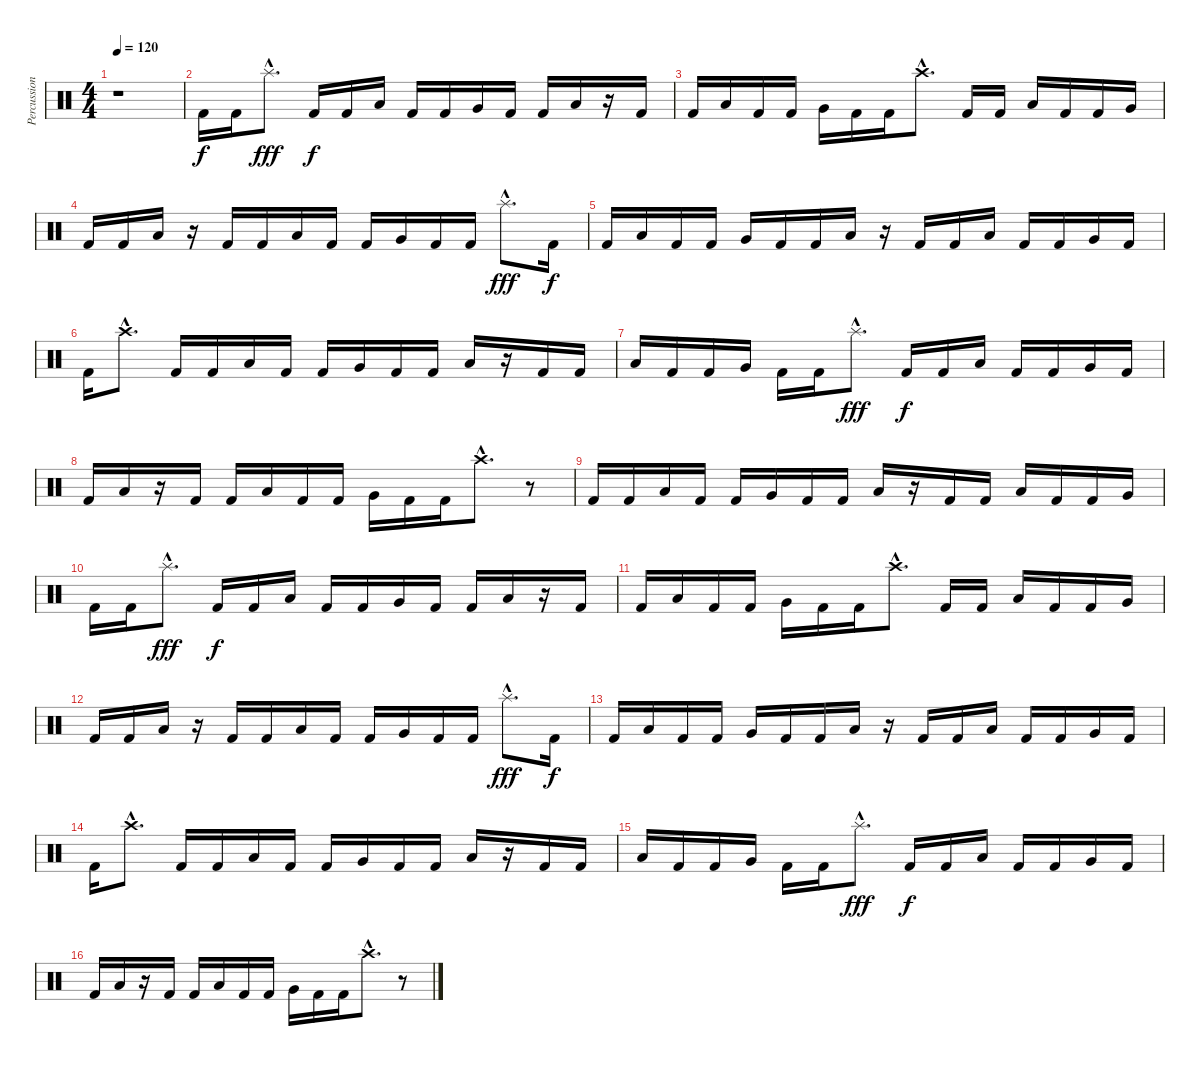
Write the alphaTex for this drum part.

\track ("Percussion" "Percussion") {instrument percussion}
\staff {score}
\articulation defaults
\ts (4 4)
\tempo 120
\clef neutral
\ks c
r.1{dy f} |
"Kick (hit) 2".16 "Kick (hit) 2".16 "Splash (hit)"{hac}.8{d dy fff} "Kick (hit) 2".16{dy f} "Kick (hit) 2".16 "Low Tom (hit)".16 "Kick (hit) 2".16 "Kick (hit) 2".16 "Very Low Tom (hit)".16 "Kick (hit) 2".16 "Kick (hit) 2".16 "Low Floor Tom (hit)".16 r.16 "Kick (hit) 2".16 |
"Kick (hit) 2".16 "Low Tom (hit)".16 "Kick (hit) 2".16 "Kick (hit) 2".16 "Very Low Tom (hit)".16 "Kick (hit) 2".16 "Kick (hit) 2".16 "Crash high (hit)"{hac}.8{d} "Kick (hit) 2".16 "Kick (hit) 2".16 "Low Tom (hit)".16 "Kick (hit) 2".16 "Kick (hit) 2".16 "Very Low Tom (hit)".16 |
"Kick (hit) 2".16 "Kick (hit) 2".16 "Low Floor Tom (hit)".16 r.16 "Kick (hit) 2".16 "Kick (hit) 2".16 "Low Tom (hit)".16 "Kick (hit) 2".16 "Kick (hit) 2".16 "Very Low Tom (hit)".16 "Kick (hit) 2".16 "Kick (hit) 2".16 "Splash (hit)"{hac}.8{d dy fff} "Kick (hit) 2".16{dy f} |
"Kick (hit) 2".16 "Low Tom (hit)".16 "Kick (hit) 2".16 "Kick (hit) 2".16 "Very Low Tom (hit)".16 "Kick (hit) 2".16 "Kick (hit) 2".16 "Low Floor Tom (hit)".16 r.16 "Kick (hit) 2".16 "Kick (hit) 2".16 "Low Tom (hit)".16 "Kick (hit) 2".16 "Kick (hit) 2".16 "Very Low Tom (hit)".16 "Kick (hit) 2".16 |
"Kick (hit) 2".16 "Crash high (hit)"{hac}.8{d} "Kick (hit) 2".16 "Kick (hit) 2".16 "Low Tom (hit)".16 "Kick (hit) 2".16 "Kick (hit) 2".16 "Very Low Tom (hit)".16 "Kick (hit) 2".16 "Kick (hit) 2".16 "Low Floor Tom (hit)".16 r.16 "Kick (hit) 2".16 "Kick (hit) 2".16 |
"Low Tom (hit)".16 "Kick (hit) 2".16 "Kick (hit) 2".16 "Very Low Tom (hit)".16 "Kick (hit) 2".16 "Kick (hit) 2".16 "Splash (hit)"{hac}.8{d dy fff} "Kick (hit) 2".16{dy f} "Kick (hit) 2".16 "Low Tom (hit)".16 "Kick (hit) 2".16 "Kick (hit) 2".16 "Very Low Tom (hit)".16 "Kick (hit) 2".16 |
"Kick (hit) 2".16 "Low Floor Tom (hit)".16 r.16 "Kick (hit) 2".16 "Kick (hit) 2".16 "Low Tom (hit)".16 "Kick (hit) 2".16 "Kick (hit) 2".16 "Very Low Tom (hit)".16 "Kick (hit) 2".16 "Kick (hit) 2".16 "Crash high (hit)"{hac}.8{d} r.8 |
"Kick (hit) 2".16 "Kick (hit) 2".16 "Low Tom (hit)".16 "Kick (hit) 2".16 "Kick (hit) 2".16 "Very Low Tom (hit)".16 "Kick (hit) 2".16 "Kick (hit) 2".16 "Low Floor Tom (hit)".16 r.16 "Kick (hit) 2".16 "Kick (hit) 2".16 "Low Tom (hit)".16 "Kick (hit) 2".16 "Kick (hit) 2".16 "Very Low Tom (hit)".16 |
"Kick (hit) 2".16 "Kick (hit) 2".16 "Splash (hit)"{hac}.8{d dy fff} "Kick (hit) 2".16{dy f} "Kick (hit) 2".16 "Low Tom (hit)".16 "Kick (hit) 2".16 "Kick (hit) 2".16 "Very Low Tom (hit)".16 "Kick (hit) 2".16 "Kick (hit) 2".16 "Low Floor Tom (hit)".16 r.16 "Kick (hit) 2".16 |
"Kick (hit) 2".16 "Low Tom (hit)".16 "Kick (hit) 2".16 "Kick (hit) 2".16 "Very Low Tom (hit)".16 "Kick (hit) 2".16 "Kick (hit) 2".16 "Crash high (hit)"{hac}.8{d} "Kick (hit) 2".16 "Kick (hit) 2".16 "Low Tom (hit)".16 "Kick (hit) 2".16 "Kick (hit) 2".16 "Very Low Tom (hit)".16 |
"Kick (hit) 2".16 "Kick (hit) 2".16 "Low Floor Tom (hit)".16 r.16 "Kick (hit) 2".16 "Kick (hit) 2".16 "Low Tom (hit)".16 "Kick (hit) 2".16 "Kick (hit) 2".16 "Very Low Tom (hit)".16 "Kick (hit) 2".16 "Kick (hit) 2".16 "Splash (hit)"{hac}.8{d dy fff} "Kick (hit) 2".16{dy f} |
"Kick (hit) 2".16 "Low Tom (hit)".16 "Kick (hit) 2".16 "Kick (hit) 2".16 "Very Low Tom (hit)".16 "Kick (hit) 2".16 "Kick (hit) 2".16 "Low Floor Tom (hit)".16 r.16 "Kick (hit) 2".16 "Kick (hit) 2".16 "Low Tom (hit)".16 "Kick (hit) 2".16 "Kick (hit) 2".16 "Very Low Tom (hit)".16 "Kick (hit) 2".16 |
"Kick (hit) 2".16 "Crash high (hit)"{hac}.8{d} "Kick (hit) 2".16 "Kick (hit) 2".16 "Low Tom (hit)".16 "Kick (hit) 2".16 "Kick (hit) 2".16 "Very Low Tom (hit)".16 "Kick (hit) 2".16 "Kick (hit) 2".16 "Low Floor Tom (hit)".16 r.16 "Kick (hit) 2".16 "Kick (hit) 2".16 |
"Low Tom (hit)".16 "Kick (hit) 2".16 "Kick (hit) 2".16 "Very Low Tom (hit)".16 "Kick (hit) 2".16 "Kick (hit) 2".16 "Splash (hit)"{hac}.8{d dy fff} "Kick (hit) 2".16{dy f} "Kick (hit) 2".16 "Low Tom (hit)".16 "Kick (hit) 2".16 "Kick (hit) 2".16 "Very Low Tom (hit)".16 "Kick (hit) 2".16 |
"Kick (hit) 2".16 "Low Floor Tom (hit)".16 r.16 "Kick (hit) 2".16 "Kick (hit) 2".16 "Low Tom (hit)".16 "Kick (hit) 2".16 "Kick (hit) 2".16 "Very Low Tom (hit)".16 "Kick (hit) 2".16 "Kick (hit) 2".16 "Crash high (hit)"{hac}.8{d} r.8
